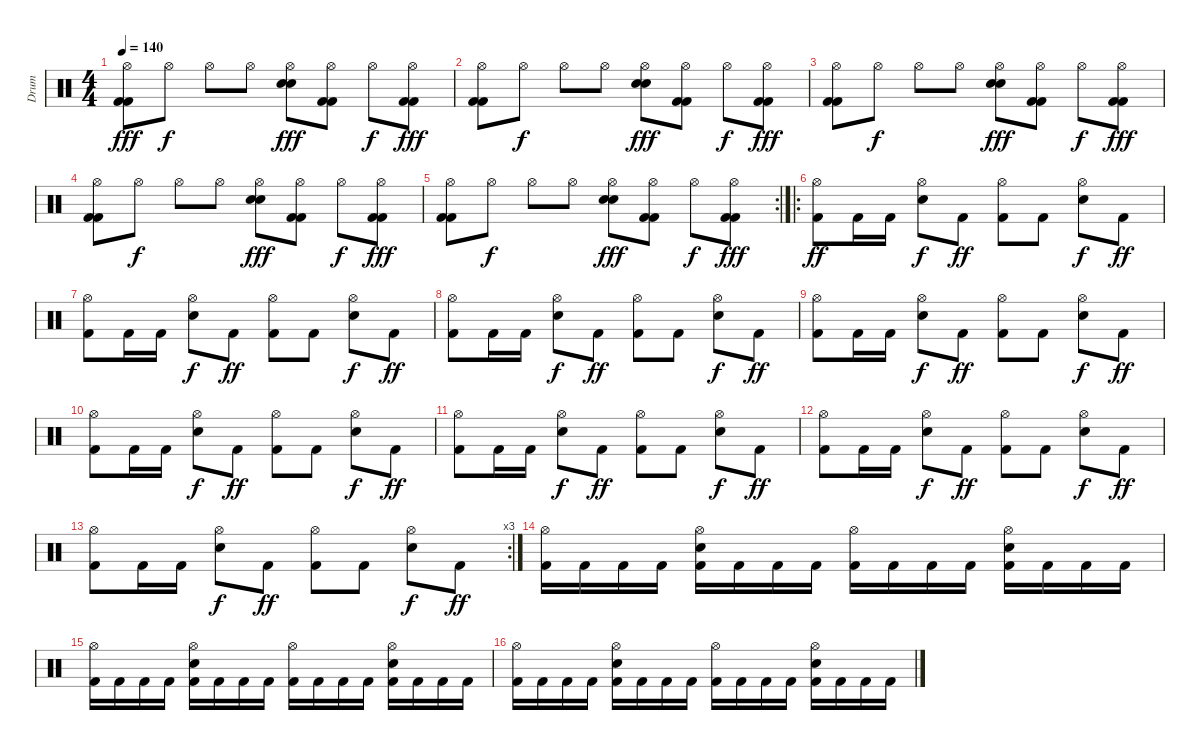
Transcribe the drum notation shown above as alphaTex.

\track ("Drum" "Drum") {instrument percussion}
\staff {score}
\articulation defaults
\ts (4 4)
\tempo 140
\clef neutral
\ks c
("Hi-Hat (open)" "Kick (hit) 2" "Kick (hit) 2").8{dy fff} "Hi-Hat (open)".8{dy f} "Hi-Hat (open)".8 "Hi-Hat (open)".8 ("Hi-Hat (open)" "Snare (hit) 2" "Snare (hit) 2").8{dy fff} ("Hi-Hat (open)" "Kick (hit) 2" "Kick (hit) 2").8 "Hi-Hat (open)".8{dy f} ("Hi-Hat (open)" "Kick (hit) 2" "Kick (hit) 2").8{dy fff} |
("Hi-Hat (open)" "Kick (hit) 2" "Kick (hit) 2").8 "Hi-Hat (open)".8{dy f} "Hi-Hat (open)".8 "Hi-Hat (open)".8 ("Hi-Hat (open)" "Snare (hit) 2" "Snare (hit) 2").8{dy fff} ("Hi-Hat (open)" "Kick (hit) 2" "Kick (hit) 2").8 "Hi-Hat (open)".8{dy f} ("Hi-Hat (open)" "Kick (hit) 2" "Kick (hit) 2").8{dy fff} |
("Hi-Hat (open)" "Kick (hit) 2" "Kick (hit) 2").8 "Hi-Hat (open)".8{dy f} "Hi-Hat (open)".8 "Hi-Hat (open)".8 ("Hi-Hat (open)" "Snare (hit) 2" "Snare (hit) 2").8{dy fff} ("Hi-Hat (open)" "Kick (hit) 2" "Kick (hit) 2").8 "Hi-Hat (open)".8{dy f} ("Hi-Hat (open)" "Kick (hit) 2" "Kick (hit) 2").8{dy fff} |
("Hi-Hat (open)" "Kick (hit) 2" "Kick (hit) 2").8 "Hi-Hat (open)".8{dy f} "Hi-Hat (open)".8 "Hi-Hat (open)".8 ("Hi-Hat (open)" "Snare (hit) 2" "Snare (hit) 2").8{dy fff} ("Hi-Hat (open)" "Kick (hit) 2" "Kick (hit) 2").8 "Hi-Hat (open)".8{dy f} ("Hi-Hat (open)" "Kick (hit) 2" "Kick (hit) 2").8{dy fff} |
\rc 2
("Hi-Hat (open)" "Kick (hit) 2" "Kick (hit) 2").8 "Hi-Hat (open)".8{dy f} "Hi-Hat (open)".8 "Hi-Hat (open)".8 ("Hi-Hat (open)" "Snare (hit) 2" "Snare (hit) 2").8{dy fff} ("Hi-Hat (open)" "Kick (hit) 2" "Kick (hit) 2").8 "Hi-Hat (open)".8{dy f} ("Hi-Hat (open)" "Kick (hit) 2" "Kick (hit) 2").8{dy fff} |
\ro
("Hi-Hat (open)" "Kick (hit) 2").8{dy ff} "Kick (hit) 2".16 "Kick (hit) 2".16 ("Hi-Hat (open)" "Snare (hit) 2").8{dy f} "Kick (hit) 2".8{dy ff} ("Hi-Hat (open)" "Kick (hit) 2").8 "Kick (hit) 2".8 ("Hi-Hat (open)" "Snare (hit) 2").8{dy f} "Kick (hit) 2".8{dy ff} |
("Hi-Hat (open)" "Kick (hit) 2").8 "Kick (hit) 2".16 "Kick (hit) 2".16 ("Hi-Hat (open)" "Snare (hit) 2").8{dy f} "Kick (hit) 2".8{dy ff} ("Hi-Hat (open)" "Kick (hit) 2").8 "Kick (hit) 2".8 ("Hi-Hat (open)" "Snare (hit) 2").8{dy f} "Kick (hit) 2".8{dy ff} |
("Hi-Hat (open)" "Kick (hit) 2").8 "Kick (hit) 2".16 "Kick (hit) 2".16 ("Hi-Hat (open)" "Snare (hit) 2").8{dy f} "Kick (hit) 2".8{dy ff} ("Hi-Hat (open)" "Kick (hit) 2").8 "Kick (hit) 2".8 ("Hi-Hat (open)" "Snare (hit) 2").8{dy f} "Kick (hit) 2".8{dy ff} |
("Hi-Hat (open)" "Kick (hit) 2").8 "Kick (hit) 2".16 "Kick (hit) 2".16 ("Hi-Hat (open)" "Snare (hit) 2").8{dy f} "Kick (hit) 2".8{dy ff} ("Hi-Hat (open)" "Kick (hit) 2").8 "Kick (hit) 2".8 ("Hi-Hat (open)" "Snare (hit) 2").8{dy f} "Kick (hit) 2".8{dy ff} |
("Hi-Hat (open)" "Kick (hit) 2").8 "Kick (hit) 2".16 "Kick (hit) 2".16 ("Hi-Hat (open)" "Snare (hit) 2").8{dy f} "Kick (hit) 2".8{dy ff} ("Hi-Hat (open)" "Kick (hit) 2").8 "Kick (hit) 2".8 ("Hi-Hat (open)" "Snare (hit) 2").8{dy f} "Kick (hit) 2".8{dy ff} |
("Hi-Hat (open)" "Kick (hit) 2").8 "Kick (hit) 2".16 "Kick (hit) 2".16 ("Hi-Hat (open)" "Snare (hit) 2").8{dy f} "Kick (hit) 2".8{dy ff} ("Hi-Hat (open)" "Kick (hit) 2").8 "Kick (hit) 2".8 ("Hi-Hat (open)" "Snare (hit) 2").8{dy f} "Kick (hit) 2".8{dy ff} |
("Hi-Hat (open)" "Kick (hit) 2").8 "Kick (hit) 2".16 "Kick (hit) 2".16 ("Hi-Hat (open)" "Snare (hit) 2").8{dy f} "Kick (hit) 2".8{dy ff} ("Hi-Hat (open)" "Kick (hit) 2").8 "Kick (hit) 2".8 ("Hi-Hat (open)" "Snare (hit) 2").8{dy f} "Kick (hit) 2".8{dy ff} |
\rc 3
("Hi-Hat (open)" "Kick (hit) 2").8 "Kick (hit) 2".16 "Kick (hit) 2".16 ("Hi-Hat (open)" "Snare (hit) 2").8{dy f} "Kick (hit) 2".8{dy ff} ("Hi-Hat (open)" "Kick (hit) 2").8 "Kick (hit) 2".8 ("Hi-Hat (open)" "Snare (hit) 2").8{dy f} "Kick (hit) 2".8{dy ff} |
("Hi-Hat (open)" "Kick (hit) 2").16 "Kick (hit) 2".16 "Kick (hit) 2".16 "Kick (hit) 2".16 ("Hi-Hat (open)" "Snare (hit) 2" "Kick (hit) 2").16 "Kick (hit) 2".16 "Kick (hit) 2".16 "Kick (hit) 2".16 ("Hi-Hat (open)" "Kick (hit) 2").16 "Kick (hit) 2".16 "Kick (hit) 2".16 "Kick (hit) 2".16 ("Hi-Hat (open)" "Snare (hit) 2" "Kick (hit) 2").16 "Kick (hit) 2".16 "Kick (hit) 2".16 "Kick (hit) 2".16 |
("Hi-Hat (open)" "Kick (hit) 2").16 "Kick (hit) 2".16 "Kick (hit) 2".16 "Kick (hit) 2".16 ("Hi-Hat (open)" "Snare (hit) 2" "Kick (hit) 2").16 "Kick (hit) 2".16 "Kick (hit) 2".16 "Kick (hit) 2".16 ("Hi-Hat (open)" "Kick (hit) 2").16 "Kick (hit) 2".16 "Kick (hit) 2".16 "Kick (hit) 2".16 ("Hi-Hat (open)" "Snare (hit) 2" "Kick (hit) 2").16 "Kick (hit) 2".16 "Kick (hit) 2".16 "Kick (hit) 2".16 |
("Hi-Hat (open)" "Kick (hit) 2").16 "Kick (hit) 2".16 "Kick (hit) 2".16 "Kick (hit) 2".16 ("Hi-Hat (open)" "Snare (hit) 2" "Kick (hit) 2").16 "Kick (hit) 2".16 "Kick (hit) 2".16 "Kick (hit) 2".16 ("Hi-Hat (open)" "Kick (hit) 2").16 "Kick (hit) 2".16 "Kick (hit) 2".16 "Kick (hit) 2".16 ("Hi-Hat (open)" "Snare (hit) 2" "Kick (hit) 2").16 "Kick (hit) 2".16 "Kick (hit) 2".16 "Kick (hit) 2".16
